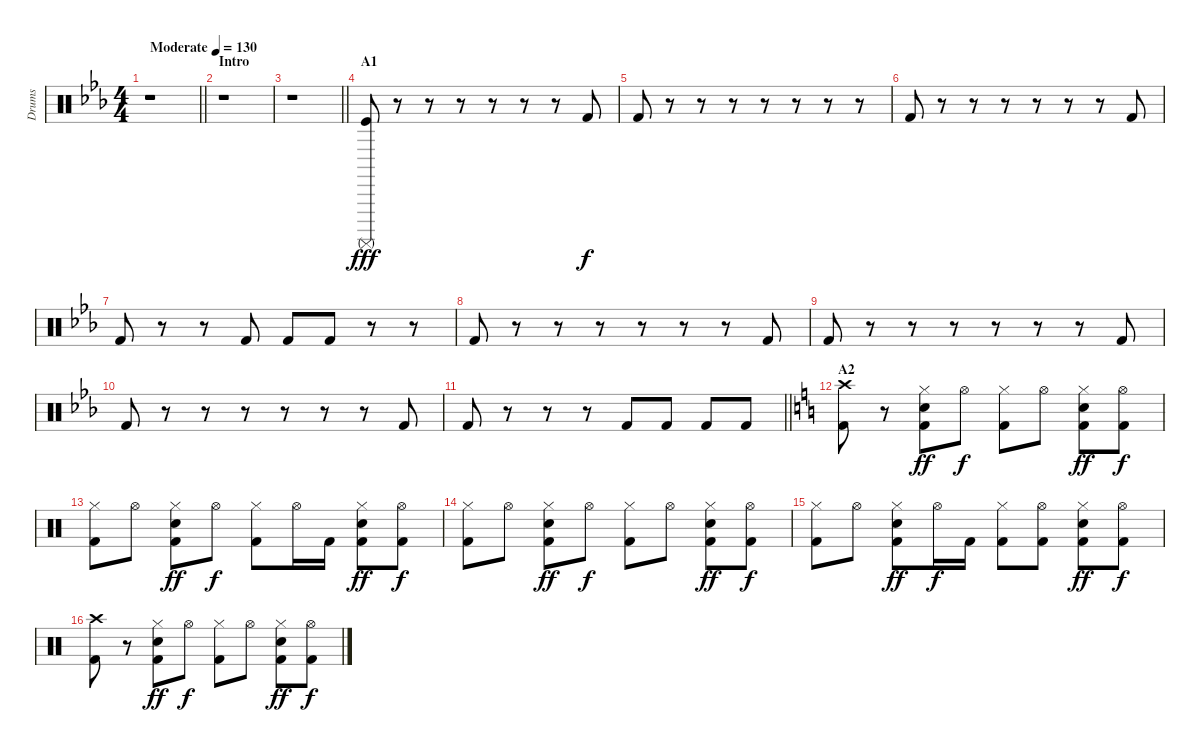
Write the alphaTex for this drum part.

\track ("Drums" "Drums") {instrument percussion}
\staff {score}
\articulation defaults
\ts (4 4)
\tempo (130 "Moderate")
\clef neutral
\barLineRight lightlight
\ks eb
r.1{dy fff} |
\section ("" "Intro")
r.1 |
\barLineRight lightlight
r.1 |
\section ("" "A1")
("Surdo (mute)" "Kick (hit)").8 r.8 r.8 r.8 r.8 r.8 r.8 "Kick (hit) 2".8{dy f} |
"Kick (hit) 2".8 r.8 r.8 r.8 r.8 r.8 r.8 r.8 |
"Kick (hit) 2".8 r.8 r.8 r.8 r.8 r.8 r.8 "Kick (hit) 2".8 |
"Kick (hit) 2".8 r.8 r.8 "Kick (hit) 2".8 "Kick (hit) 2".8 "Kick (hit) 2".8 r.8 r.8 |
"Kick (hit) 2".8 r.8 r.8 r.8 r.8 r.8 r.8 "Kick (hit) 2".8 |
"Kick (hit) 2".8 r.8 r.8 r.8 r.8 r.8 r.8 "Kick (hit) 2".8 |
"Kick (hit) 2".8 r.8 r.8 r.8 r.8 r.8 r.8 "Kick (hit) 2".8 |
\barLineRight lightlight "Kick (hit) 2".8
r.8 r.8 r.8 "Kick (hit) 2".8 "Kick (hit) 2".8 "Kick (hit) 2".8 "Kick (hit) 2".8 |
\section ("" "A2")
\ks c
("Crash high (hit)" "Kick (hit) 2").8 r.8 ("Hi-Hat (closed)" "Hand Clap (hit)" "Kick (hit) 2").8{dy ff} "Hi-Hat (open)".8{dy f} ("Hi-Hat (closed)" "Kick (hit) 2").8 "Hi-Hat (open)".8 ("Hi-Hat (closed)" "Hand Clap (hit)" "Kick (hit) 2").8{dy ff} ("Hi-Hat (open)" "Kick (hit) 2").8{dy f} |
("Hi-Hat (closed)" "Kick (hit) 2").8 "Hi-Hat (open)".8 ("Hi-Hat (closed)" "Hand Clap (hit)" "Kick (hit) 2").8{dy ff} "Hi-Hat (open)".8{dy f} ("Hi-Hat (closed)" "Kick (hit) 2").8 "Hi-Hat (open)".16 "Kick (hit) 2".16 ("Hi-Hat (closed)" "Hand Clap (hit)" "Kick (hit) 2").8{dy ff} ("Hi-Hat (open)" "Kick (hit) 2").8{dy f} |
("Hi-Hat (closed)" "Kick (hit) 2").8 "Hi-Hat (open)".8 ("Hi-Hat (closed)" "Hand Clap (hit)" "Kick (hit) 2").8{dy ff} "Hi-Hat (open)".8{dy f} ("Hi-Hat (closed)" "Kick (hit) 2").8 "Hi-Hat (open)".8 ("Hi-Hat (closed)" "Hand Clap (hit)" "Kick (hit) 2").8{dy ff} ("Hi-Hat (open)" "Kick (hit) 2").8{dy f} |
("Hi-Hat (closed)" "Kick (hit) 2").8 "Hi-Hat (open)".8 ("Hi-Hat (closed)" "Hand Clap (hit)" "Kick (hit) 2").8{dy ff} "Hi-Hat (open)".16{dy f} "Kick (hit) 2".16 ("Hi-Hat (closed)" "Kick (hit) 2").8 ("Hi-Hat (open)" "Kick (hit) 2").8 ("Hi-Hat (closed)" "Hand Clap (hit)" "Kick (hit) 2").8{dy ff} ("Hi-Hat (open)" "Kick (hit) 2").8{dy f} |
("Crash high (hit)" "Kick (hit) 2").8 r.8 ("Hi-Hat (closed)" "Hand Clap (hit)" "Kick (hit) 2").8{dy ff} "Hi-Hat (open)".8{dy f} ("Hi-Hat (closed)" "Kick (hit) 2").8 "Hi-Hat (open)".8 ("Hi-Hat (closed)" "Hand Clap (hit)" "Kick (hit) 2").8{dy ff} ("Hi-Hat (open)" "Kick (hit) 2").8{dy f}
